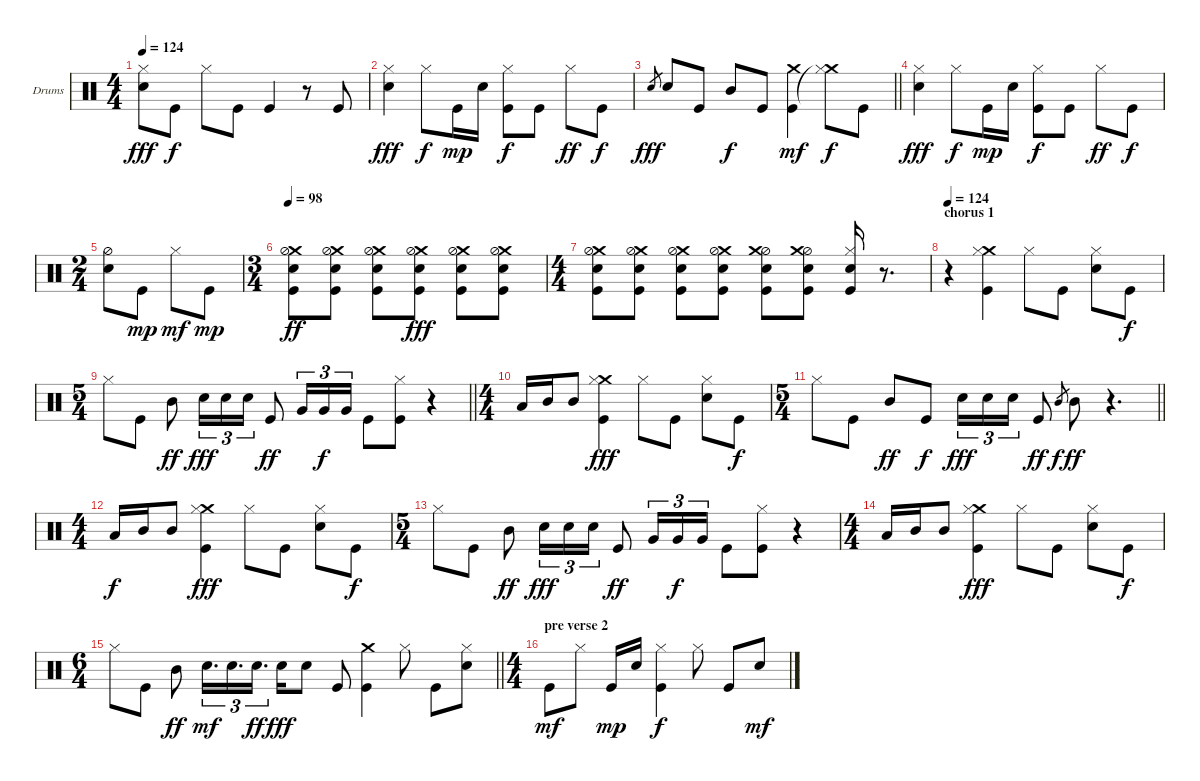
\bracketExtendMode groupsimilarinstruments
\firstSystemTrackNameOrientation horizontal
\otherSystemsTrackNameOrientation horizontal
\track ("drums - john hinch" "Drums") {instrument percussion}
\staff {score}
\articulation defaults
\ts (4 4)
\tempo 124
\clef neutral
\scale
0.333333
\ks c
("Snare (hit) 2" "Hi-Hat (closed)").8{dy fff} "Kick (hit)".8{dy f} "Hi-Hat (closed)".8 "Kick (hit)".8 "Kick (hit)".4 r.8 "Kick (hit)".8 |
\scale
0.333333 ("Snare (hit) 2" "Hi-Hat (closed)").4{dy fff} "Hi-Hat (closed)".8{dy f} "Kick (hit)".16{dy mp} "Snare (hit) 2".16 ("Kick (hit)" "Hi-Hat (closed)").8{dy f} "Kick (hit)".8 "Hi-Hat (closed)".8{dy ff} "Kick (hit)".8{dy f} |
\scale
0.333333
\barLineRight lightlight "Snare (hit) 2".8{gr dy fff} "Snare (hit) 2".8 "Kick (hit)".8 "Mid Tom (hit)".8{dy f} "Kick (hit)".8
("Kick (hit)" "Crash medium (hit)").4{dy mf} ("Crash medium (hit)"{t} "Hi-Hat (closed)").8{dy f} "Kick (hit)".8 |
\scale
0.333333 ("Snare (hit) 2" "Hi-Hat (closed)").4{dy fff} "Hi-Hat (closed)".8{dy f} "Kick (hit)".16{dy mp} "Snare (hit) 2".16 ("Kick (hit)" "Hi-Hat (closed)").8{dy f} "Kick (hit)".8 "Hi-Hat (closed)".8{dy ff} "Kick (hit)".8{dy f} |
\ts (2 4)
("Snare (hit) 2" "Hi-Hat (half)").8 "Kick (hit)".8{dy mp} "Hi-Hat (closed)".8{dy mf} "Kick (hit)".8{dy mp} |
\ts (3 4)
\tempo 98
\scale
0.333333 ("Kick (hit)" "Crash medium (hit)" "Hi-Hat (half)" "Snare (hit) 2").8{dy ff} ("Kick (hit)" "Crash medium (hit)" "Hi-Hat (half)" "Snare (hit) 2").8 ("Kick (hit)" "Crash medium (hit)" "Hi-Hat (half)" "Snare (hit) 2").8 ("Kick (hit)" "Crash medium (hit)" "Hi-Hat (half)" "Snare (hit) 2").8{dy fff} ("Kick (hit)" "Crash medium (hit)" "Hi-Hat (half)" "Snare (hit) 2").8 ("Kick (hit)" "Crash medium (hit)" "Hi-Hat (half)" "Snare (hit) 2").8 |
\ts (4 4)
\scale
0.333333 ("Kick (hit)" "Crash medium (hit)" "Hi-Hat (half)" "Snare (hit) 2").8 ("Kick (hit)" "Crash medium (hit)" "Hi-Hat (half)" "Snare (hit) 2").8 ("Kick (hit)" "Crash medium (hit)" "Hi-Hat (half)" "Snare (hit) 2").8 ("Kick (hit)" "Crash medium (hit)" "Hi-Hat (half)" "Snare (hit) 2").8 ("Kick (hit)" "Hi-Hat (half)" "Snare (hit) 2" "Crash medium (hit)").8 ("Kick (hit)" "Hi-Hat (half)" "Snare (hit) 2" "Crash medium (hit)").8 ("Kick (hit)" "Hi-Hat (closed)" "Snare (hit) 2").16 r.8{d} |
\section ("" "chorus 1")
\tempo 124
\scale
0.217054 r.4 ("Kick (hit)" "Crash medium (hit)" "Hi-Hat (closed)").4 "Hi-Hat (closed)".8 "Kick (hit)".8 ("Snare (hit) 2" "Hi-Hat (closed)").8 "Kick (hit)".8{dy f} |
\ts (5 4)
\scale
0.391473
\barLineRight lightlight "Hi-Hat (closed)".8 "Kick (hit)".8 "Mid Tom (hit)".8{dy ff} "Snare (hit) 2".16{tu (3 2) dy fff} "Snare (hit) 2".16{tu (3 2)} "Snare (hit) 2".16{tu (3 2)} "Kick (hit)".8{dy ff} "Very Low Tom (hit)".16{tu (3 2)} "Very Low Tom (hit)".16{tu (3 2) dy f} "Very Low Tom (hit)".16{tu (3 2)} "Kick (hit)".8
("Kick (hit)" "Hi-Hat (closed)").8 r.4 |
\ts (4 4)
\scale
0.391473 "Low Tom (hit)".16 "Mid Tom (hit)".16 "Mid Tom (hit)".8 ("Kick (hit)" "Crash medium (hit)" "Hi-Hat (closed)").4{dy fff} "Hi-Hat (closed)".8 "Kick (hit)".8 ("Snare (hit) 2" "Hi-Hat (closed)").8 "Kick (hit)".8{dy f} |
\ts (5 4)
\scale
0.333333
\barLineRight lightlight "Hi-Hat (closed)".8 "Kick (hit)".8 "Mid Tom (hit)".8{dy ff} "Kick (hit)".8{dy f} "Snare (hit) 2".16{tu (3 2) dy fff} "Snare (hit) 2".16{tu (3 2)} "Snare (hit) 2".16{tu (3 2)} "Kick (hit)".8{dy ff} "Mid Tom (hit)".8{gr dy f} "Mid Tom (hit)".8{dy ff}
r.4{d} |
\ts (4 4)
\scale
0.333333 "Low Tom (hit)".16{dy f} "Mid Tom (hit)".16 "Mid Tom (hit)".8 ("Kick (hit)" "Crash medium (hit)" "Hi-Hat (closed)").4{dy fff} "Hi-Hat (closed)".8 "Kick (hit)".8 ("Snare (hit) 2" "Hi-Hat (closed)").8 "Kick (hit)".8{dy f} |
\ts (5 4)
\scale
0.333333 "Hi-Hat (closed)".8 "Kick (hit)".8 "Mid Tom (hit)".8{dy ff} "Snare (hit) 2".16{tu (3 2) dy fff} "Snare (hit) 2".16{tu (3 2)} "Snare (hit) 2".16{tu (3 2)} "Kick (hit)".8{dy ff} "Very Low Tom (hit)".16{tu (3 2)} "Very Low Tom (hit)".16{tu (3 2) dy f} "Very Low Tom (hit)".16{tu (3 2)} "Kick (hit)".8 ("Kick (hit)" "Hi-Hat (closed)").8 r.4 |
\ts (4 4)
\scale
0.333333 "Low Tom (hit)".16 "Mid Tom (hit)".16 "Mid Tom (hit)".8 ("Kick (hit)" "Crash medium (hit)" "Hi-Hat (closed)").4{dy fff} "Hi-Hat (closed)".8 "Kick (hit)".8 ("Snare (hit) 2" "Hi-Hat (closed)").8 "Kick (hit)".8{dy f} |
\ts (6 4)
\scale
0.333333
\barLineRight lightlight "Hi-Hat (closed)".8 "Kick (hit)".8 "Mid Tom (hit)".8{dy ff} "Snare (hit) 2".16{d tu (3 2) dy mf} "Snare (hit) 2".16{d tu (3 2)} "Snare (hit) 2".16{d tu (3 2) dy ff} "Snare (hit) 2".16{dy fff} "Snare (hit) 2".8 "Kick (hit)".8
("Kick (hit)" "Crash medium (hit)").4 "Hi-Hat (closed)".8 "Kick (hit)".8 ("Snare (hit) 2" "Hi-Hat (closed)").8 |
\ts (4 4)
\section ("" "pre verse 2")
\scale
0.333333 "Kick (hit)".8{dy mf} "Hi-Hat (closed)".8 "Kick (hit)".16{dy mp} "Snare (hit) 2".16 ("Kick (hit)" "Hi-Hat (closed)").4{dy f} "Hi-Hat (closed)".8 "Kick (hit)".8 "Snare (hit) 2".8{dy mf}
